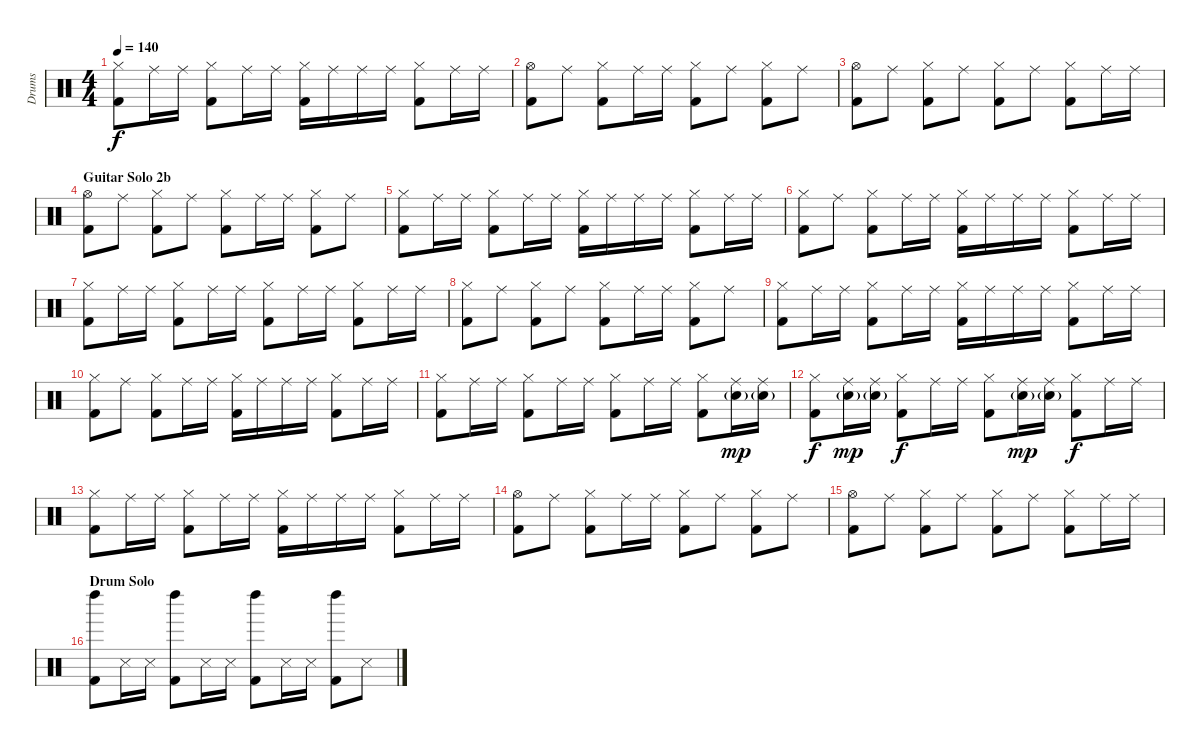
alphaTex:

\track ("Drums" "Drums") {instrument percussion}
\staff {score}
\articulation defaults
\ts (4 4)
\tempo 140
\clef neutral
\ks c
("Hi-Hat (closed)" "Kick (hit) 2").8{dy f} "Ride (middle)".16 "Ride (middle)".16 ("Hi-Hat (closed)" "Kick (hit) 2").8 "Ride (middle)".16 "Ride (middle)".16 ("Hi-Hat (closed)" "Kick (hit) 2").16 "Ride (middle)".16 "Ride (middle)".16 "Ride (middle)".16 ("Hi-Hat (closed)" "Kick (hit) 2").8 "Ride (middle)".16 "Ride (middle)".16 |
("Hi-Hat (open)" "Kick (hit) 2").8 "Ride (middle)".8 ("Hi-Hat (closed)" "Kick (hit) 2").8 "Ride (middle)".16 "Ride (middle)".16 ("Hi-Hat (closed)" "Kick (hit) 2").8 "Ride (middle)".8 ("Hi-Hat (closed)" "Kick (hit) 2").8 "Ride (middle)".8 |
("Hi-Hat (open)" "Kick (hit) 2").8 "Ride (middle)".8 ("Hi-Hat (closed)" "Kick (hit) 2").8 "Ride (middle)".8 ("Hi-Hat (closed)" "Kick (hit) 2").8 "Ride (middle)".8 ("Hi-Hat (closed)" "Kick (hit) 2").8 "Ride (middle)".16 "Ride (middle)".16 |
\section ("" "Guitar Solo 2b")
("Hi-Hat (open)" "Kick (hit) 2").8 "Ride (middle)".8 ("Hi-Hat (closed)" "Kick (hit) 2").8 "Ride (middle)".8 ("Hi-Hat (closed)" "Kick (hit) 2").8 "Ride (middle)".16 "Ride (middle)".16 ("Hi-Hat (closed)" "Kick (hit) 2").8 "Ride (middle)".8 |
("Hi-Hat (closed)" "Kick (hit) 2").8 "Ride (middle)".16 "Ride (middle)".16 ("Hi-Hat (closed)" "Kick (hit) 2").8 "Ride (middle)".16 "Ride (middle)".16 ("Hi-Hat (closed)" "Kick (hit) 2").16 "Ride (middle)".16 "Ride (middle)".16 "Ride (middle)".16 ("Hi-Hat (closed)" "Kick (hit) 2").8 "Ride (middle)".16 "Ride (middle)".16 |
("Hi-Hat (closed)" "Kick (hit) 2").8 "Ride (middle)".8 ("Hi-Hat (closed)" "Kick (hit) 2").8 "Ride (middle)".16 "Ride (middle)".16 ("Hi-Hat (closed)" "Kick (hit) 2").16 "Ride (middle)".16 "Ride (middle)".16 "Ride (middle)".16 ("Hi-Hat (closed)" "Kick (hit) 2").8 "Ride (middle)".16 "Ride (middle)".16 |
("Hi-Hat (closed)" "Kick (hit) 2").8 "Ride (middle)".16 "Ride (middle)".16 ("Hi-Hat (closed)" "Kick (hit) 2").8 "Ride (middle)".16 "Ride (middle)".16 ("Hi-Hat (closed)" "Kick (hit) 2").8 "Ride (middle)".16 "Ride (middle)".16 ("Hi-Hat (closed)" "Kick (hit) 2").8 "Ride (middle)".16 "Ride (middle)".16 |
("Hi-Hat (closed)" "Kick (hit) 2").8 "Ride (middle)".8 ("Hi-Hat (closed)" "Kick (hit) 2").8 "Ride (middle)".8 ("Hi-Hat (closed)" "Kick (hit) 2").8 "Ride (middle)".16 "Ride (middle)".16 ("Hi-Hat (closed)" "Kick (hit) 2").8 "Ride (middle)".8 |
("Hi-Hat (closed)" "Kick (hit) 2").8 "Ride (middle)".16 "Ride (middle)".16 ("Hi-Hat (closed)" "Kick (hit) 2").8 "Ride (middle)".16 "Ride (middle)".16 ("Hi-Hat (closed)" "Kick (hit) 2").16 "Ride (middle)".16 "Ride (middle)".16 "Ride (middle)".16 ("Hi-Hat (closed)" "Kick (hit) 2").8 "Ride (middle)".16 "Ride (middle)".16 |
("Hi-Hat (closed)" "Kick (hit) 2").8 "Ride (middle)".8 ("Hi-Hat (closed)" "Kick (hit) 2").8 "Ride (middle)".16 "Ride (middle)".16 ("Hi-Hat (closed)" "Kick (hit) 2").16 "Ride (middle)".16 "Ride (middle)".16 "Ride (middle)".16 ("Hi-Hat (closed)" "Kick (hit) 2").8 "Ride (middle)".16 "Ride (middle)".16 |
("Hi-Hat (closed)" "Kick (hit) 2").8 "Ride (middle)".16 "Ride (middle)".16 ("Hi-Hat (closed)" "Kick (hit) 2").8 "Ride (middle)".16 "Ride (middle)".16 ("Hi-Hat (closed)" "Kick (hit) 2").8 "Ride (middle)".16 "Ride (middle)".16 ("Hi-Hat (closed)" "Kick (hit) 2").8 ("Ride (middle)" "Snare (hit) 2"{g}).16{dy mp} ("Ride (middle)" "Snare (hit) 2"{g}).16 |
("Hi-Hat (closed)" "Kick (hit) 2").8{dy f} ("Ride (middle)" "Snare (hit) 2"{g}).16{dy mp} ("Ride (middle)" "Snare (hit) 2"{g}).16 ("Hi-Hat (closed)" "Kick (hit) 2").8{dy f} "Ride (middle)".16 "Ride (middle)".16 ("Hi-Hat (closed)" "Kick (hit) 2").8 ("Ride (middle)" "Snare (hit) 2"{g}).16{dy mp} ("Ride (middle)" "Snare (hit) 2"{g}).16 ("Hi-Hat (closed)" "Kick (hit) 2").8{dy f} "Ride (middle)".16 "Ride (middle)".16 |
("Hi-Hat (closed)" "Kick (hit) 2").8 "Ride (middle)".16 "Ride (middle)".16 ("Hi-Hat (closed)" "Kick (hit) 2").8 "Ride (middle)".16 "Ride (middle)".16 ("Hi-Hat (closed)" "Kick (hit) 2").16 "Ride (middle)".16 "Ride (middle)".16 "Ride (middle)".16 ("Hi-Hat (closed)" "Kick (hit) 2").8 "Ride (middle)".16 "Ride (middle)".16 |
("Hi-Hat (open)" "Kick (hit) 2").8 "Ride (middle)".8 ("Hi-Hat (closed)" "Kick (hit) 2").8 "Ride (middle)".16 "Ride (middle)".16 ("Hi-Hat (closed)" "Kick (hit) 2").8 "Ride (middle)".8 ("Hi-Hat (closed)" "Kick (hit) 2").8 "Ride (middle)".8 |
("Hi-Hat (open)" "Kick (hit) 2").8 "Ride (middle)".8 ("Hi-Hat (closed)" "Kick (hit) 2").8 "Ride (middle)".8 ("Hi-Hat (closed)" "Kick (hit) 2").8 "Ride (middle)".8 ("Hi-Hat (closed)" "Kick (hit) 2").8 "Ride (middle)".16 "Ride (middle)".16 |
\section ("" "Drum Solo")
("Left Maraca (hit)" "Kick (hit) 2").8 "Snare (side stick) 3".16 "Snare (side stick) 3".16 ("Left Maraca (hit)" "Kick (hit) 2").8 "Snare (side stick) 3".16 "Snare (side stick) 3".16 ("Left Maraca (hit)" "Kick (hit) 2").8 "Snare (side stick) 3".16 "Snare (side stick) 3".16 ("Left Maraca (hit)" "Kick (hit) 2").8 "Snare (side stick) 3".8
